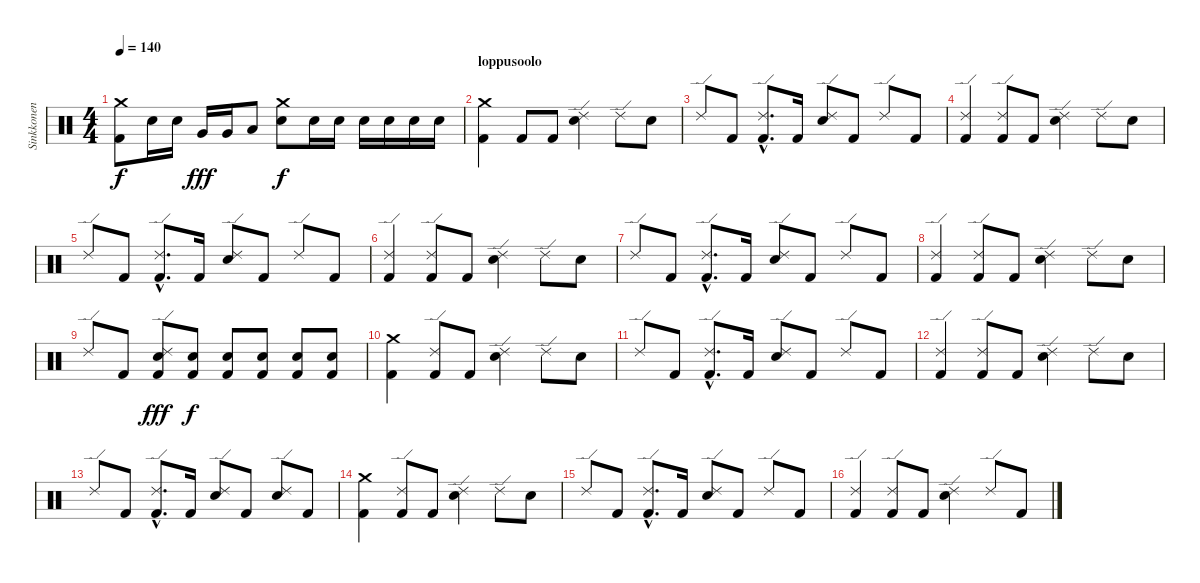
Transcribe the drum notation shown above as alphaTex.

\track ("Sinkkonen" "Sinkkonen") {instrument percussion}
\staff {score}
\articulation defaults
\ts (4 4)
\tempo 140
\clef neutral
\ks c
("Kick (hit) 2" "Crash medium (hit)").8{dy f} "Snare (hit) 2".16 "Snare (hit) 2".16 "Very Low Tom (hit)".16{dy fff} "Very Low Tom (hit)".16 "Low Floor Tom (hit)".8 ("Crash medium (hit)" "Snare (hit) 2").8{dy f} "Snare (hit) 2".16 "Snare (hit) 2".16 "Snare (hit) 2".16 "Snare (hit) 2".16 "Snare (hit) 2".16 "Snare (hit) 2".16 |
\section ("" "loppusoolo")
("Kick (hit) 2" "Crash medium (hit)").4 "Kick (hit) 2".8 "Kick (hit) 2".8 ("Ride (edge) 2" "Snare (hit) 2").4 "Ride (edge) 2".8 "Snare (hit) 2".8 |
"Ride (edge) 2".8 "Kick (hit) 2".8 ("Kick (hit) 2"{hac} "Ride (edge) 2"{hac}).8{d} "Kick (hit) 2".16 ("Ride (edge) 2" "Snare (hit) 2").8 "Kick (hit) 2".8 "Ride (edge) 2".8 "Kick (hit) 2".8 |
("Kick (hit) 2" "Ride (edge) 2").4 ("Kick (hit) 2" "Ride (edge) 2").8 "Kick (hit) 2".8 ("Ride (edge) 2" "Snare (hit) 2").4 "Ride (edge) 2".8 "Snare (hit) 2".8 |
"Ride (edge) 2".8 "Kick (hit) 2".8 ("Kick (hit) 2"{hac} "Ride (edge) 2"{hac}).8{d} "Kick (hit) 2".16 ("Ride (edge) 2" "Snare (hit) 2").8 "Kick (hit) 2".8 "Ride (edge) 2".8 "Kick (hit) 2".8 |
("Kick (hit) 2" "Ride (edge) 2").4 ("Kick (hit) 2" "Ride (edge) 2").8 "Kick (hit) 2".8 ("Ride (edge) 2" "Snare (hit) 2").4 "Ride (edge) 2".8 "Snare (hit) 2".8 |
"Ride (edge) 2".8 "Kick (hit) 2".8 ("Kick (hit) 2"{hac} "Ride (edge) 2"{hac}).8{d} "Kick (hit) 2".16 ("Ride (edge) 2" "Snare (hit) 2").8 "Kick (hit) 2".8 "Ride (edge) 2".8 "Kick (hit) 2".8 |
("Kick (hit) 2" "Ride (edge) 2").4 ("Kick (hit) 2" "Ride (edge) 2").8 "Kick (hit) 2".8 ("Ride (edge) 2" "Snare (hit) 2").4 "Ride (edge) 2".8 "Snare (hit) 2".8 |
"Ride (edge) 2".8 "Kick (hit) 2".8 ("Kick (hit) 2" "Ride (edge) 2" "Snare (hit) 2").8{dy fff} ("Kick (hit) 2" "Snare (hit) 2").8{dy f} ("Kick (hit) 2" "Snare (hit) 2").8 ("Kick (hit) 2" "Snare (hit) 2").8 ("Kick (hit) 2" "Snare (hit) 2").8 ("Kick (hit) 2" "Snare (hit) 2").8 |
("Kick (hit) 2" "Crash medium (hit)").4 ("Kick (hit) 2" "Ride (edge) 2").8 "Kick (hit) 2".8 ("Ride (edge) 2" "Snare (hit) 2").4 "Ride (edge) 2".8 "Snare (hit) 2".8 |
"Ride (edge) 2".8 "Kick (hit) 2".8 ("Kick (hit) 2"{hac} "Ride (edge) 2"{hac}).8{d} "Kick (hit) 2".16 ("Ride (edge) 2" "Snare (hit) 2").8 "Kick (hit) 2".8 "Ride (edge) 2".8 "Kick (hit) 2".8 |
("Kick (hit) 2" "Ride (edge) 2").4 ("Kick (hit) 2" "Ride (edge) 2").8 "Kick (hit) 2".8 ("Ride (edge) 2" "Snare (hit) 2").4 "Ride (edge) 2".8 "Snare (hit) 2".8 |
"Ride (edge) 2".8 "Kick (hit) 2".8 ("Kick (hit) 2"{hac} "Ride (edge) 2"{hac}).8{d} "Kick (hit) 2".16 ("Ride (edge) 2" "Snare (hit) 2").8 "Kick (hit) 2".8 ("Ride (edge) 2" "Snare (hit) 2").8 "Kick (hit) 2".8 |
("Kick (hit) 2" "Crash medium (hit)").4 ("Kick (hit) 2" "Ride (edge) 2").8 "Kick (hit) 2".8 ("Ride (edge) 2" "Snare (hit) 2").4 "Ride (edge) 2".8 "Snare (hit) 2".8 |
"Ride (edge) 2".8 "Kick (hit) 2".8 ("Kick (hit) 2"{hac} "Ride (edge) 2"{hac}).8{d} "Kick (hit) 2".16 ("Ride (edge) 2" "Snare (hit) 2").8 "Kick (hit) 2".8 "Ride (edge) 2".8 "Kick (hit) 2".8 |
("Kick (hit) 2" "Ride (edge) 2").4 ("Kick (hit) 2" "Ride (edge) 2").8 "Kick (hit) 2".8 ("Ride (edge) 2" "Snare (hit) 2").4 "Ride (edge) 2".8 "Kick (hit) 2".8
